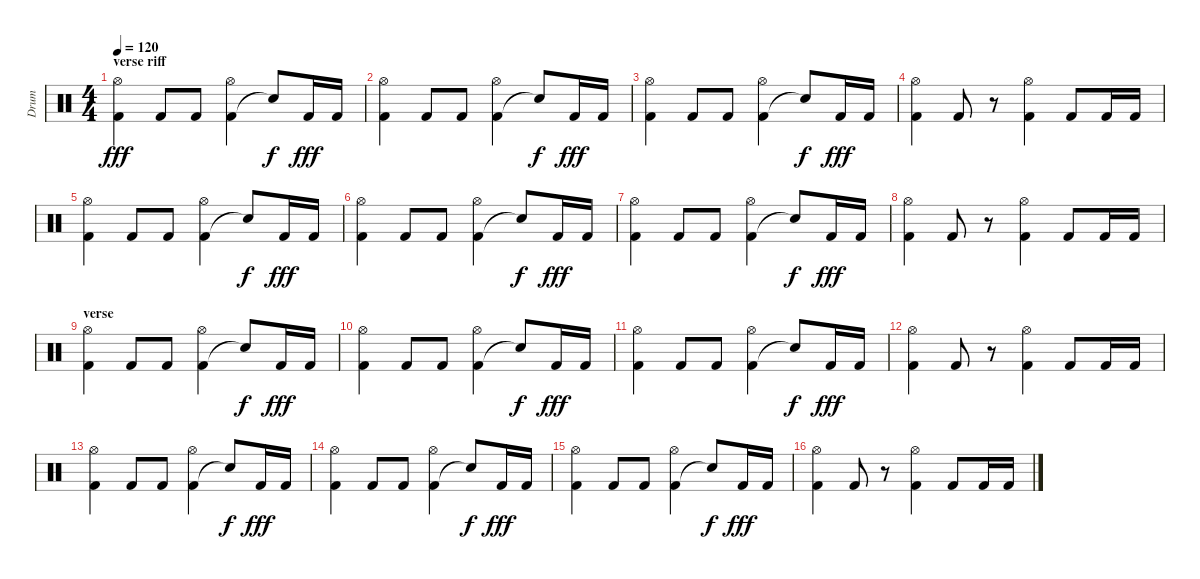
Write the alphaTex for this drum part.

\track ("Drum" "Drum") {instrument percussion}
\staff {score}
\articulation defaults
\ts (4 4)
\section ("" "verse riff")
\tempo 120
\clef neutral
\ks c
("Kick (hit) 2" "Hi-Hat (open)").4{dy fff} "Kick (hit) 2".8 "Kick (hit) 2".8 ("Kick (hit) 2" "Hi-Hat (open)").4 "Snare (hit)"{t}.8{dy f} "Kick (hit) 2".16{dy fff} "Kick (hit) 2".16 |
("Kick (hit) 2" "Hi-Hat (open)").4 "Kick (hit) 2".8 "Kick (hit) 2".8 ("Kick (hit) 2" "Hi-Hat (open)").4 "Snare (hit)"{t}.8{dy f} "Kick (hit) 2".16{dy fff} "Kick (hit) 2".16 |
("Kick (hit) 2" "Hi-Hat (open)").4 "Kick (hit) 2".8 "Kick (hit) 2".8 ("Kick (hit) 2" "Hi-Hat (open)").4 "Snare (hit)"{t}.8{dy f} "Kick (hit) 2".16{dy fff} "Kick (hit) 2".16 |
("Kick (hit) 2" "Hi-Hat (open)").4 "Kick (hit) 2".8 r.8 ("Kick (hit) 2" "Hi-Hat (open)").4 "Kick (hit) 2".8 "Kick (hit) 2".16 "Kick (hit) 2".16 |
("Kick (hit) 2" "Hi-Hat (open)").4 "Kick (hit) 2".8 "Kick (hit) 2".8 ("Kick (hit) 2" "Hi-Hat (open)").4 "Snare (hit)"{t}.8{dy f} "Kick (hit) 2".16{dy fff} "Kick (hit) 2".16 |
("Kick (hit) 2" "Hi-Hat (open)").4 "Kick (hit) 2".8 "Kick (hit) 2".8 ("Kick (hit) 2" "Hi-Hat (open)").4 "Snare (hit)"{t}.8{dy f} "Kick (hit) 2".16{dy fff} "Kick (hit) 2".16 |
("Kick (hit) 2" "Hi-Hat (open)").4 "Kick (hit) 2".8 "Kick (hit) 2".8 ("Kick (hit) 2" "Hi-Hat (open)").4 "Snare (hit)"{t}.8{dy f} "Kick (hit) 2".16{dy fff} "Kick (hit) 2".16 |
("Kick (hit) 2" "Hi-Hat (open)").4 "Kick (hit) 2".8 r.8 ("Kick (hit) 2" "Hi-Hat (open)").4 "Kick (hit) 2".8 "Kick (hit) 2".16 "Kick (hit) 2".16 |
\section ("" "verse")
("Kick (hit) 2" "Hi-Hat (open)").4 "Kick (hit) 2".8 "Kick (hit) 2".8 ("Kick (hit) 2" "Hi-Hat (open)").4 "Snare (hit)"{t}.8{dy f} "Kick (hit) 2".16{dy fff} "Kick (hit) 2".16 |
("Kick (hit) 2" "Hi-Hat (open)").4 "Kick (hit) 2".8 "Kick (hit) 2".8 ("Kick (hit) 2" "Hi-Hat (open)").4 "Snare (hit)"{t}.8{dy f} "Kick (hit) 2".16{dy fff} "Kick (hit) 2".16 |
("Kick (hit) 2" "Hi-Hat (open)").4 "Kick (hit) 2".8 "Kick (hit) 2".8 ("Kick (hit) 2" "Hi-Hat (open)").4 "Snare (hit)"{t}.8{dy f} "Kick (hit) 2".16{dy fff} "Kick (hit) 2".16 |
("Kick (hit) 2" "Hi-Hat (open)").4 "Kick (hit) 2".8 r.8 ("Kick (hit) 2" "Hi-Hat (open)").4 "Kick (hit) 2".8 "Kick (hit) 2".16 "Kick (hit) 2".16 |
("Kick (hit) 2" "Hi-Hat (open)").4 "Kick (hit) 2".8 "Kick (hit) 2".8 ("Kick (hit) 2" "Hi-Hat (open)").4 "Snare (hit)"{t}.8{dy f} "Kick (hit) 2".16{dy fff} "Kick (hit) 2".16 |
("Kick (hit) 2" "Hi-Hat (open)").4 "Kick (hit) 2".8 "Kick (hit) 2".8 ("Kick (hit) 2" "Hi-Hat (open)").4 "Snare (hit)"{t}.8{dy f} "Kick (hit) 2".16{dy fff} "Kick (hit) 2".16 |
("Kick (hit) 2" "Hi-Hat (open)").4 "Kick (hit) 2".8 "Kick (hit) 2".8 ("Kick (hit) 2" "Hi-Hat (open)").4 "Snare (hit)"{t}.8{dy f} "Kick (hit) 2".16{dy fff} "Kick (hit) 2".16 |
("Kick (hit) 2" "Hi-Hat (open)").4 "Kick (hit) 2".8 r.8 ("Kick (hit) 2" "Hi-Hat (open)").4 "Kick (hit) 2".8 "Kick (hit) 2".16 "Kick (hit) 2".16
